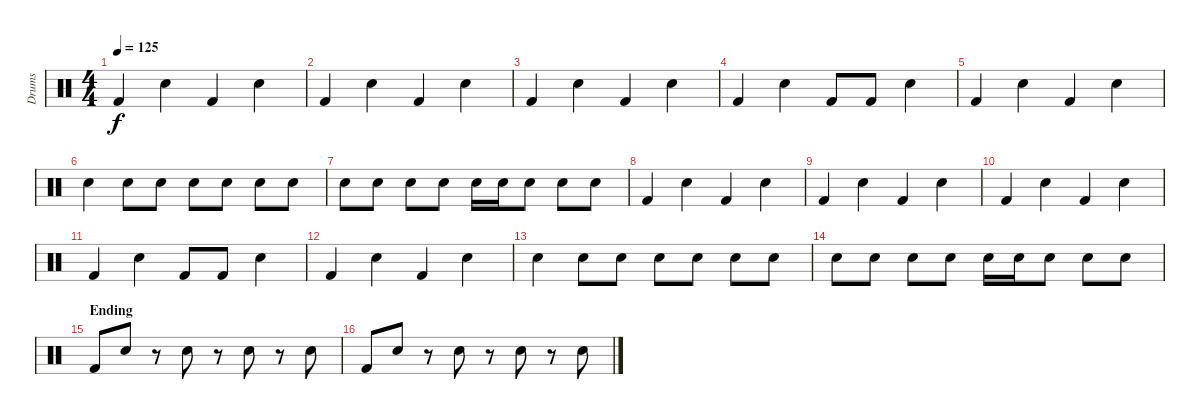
\track ("Drums" "Drums") {instrument percussion}
\staff {score}
\articulation defaults
\ts (4 4)
\tempo 125
\clef neutral
\ks c "Kick (hit) 2".4{dy f} "Snare (hit) 2".4 "Kick (hit) 2".4 "Snare (hit) 2".4
|
"Kick (hit) 2".4 "Snare (hit) 2".4 "Kick (hit) 2".4 "Snare (hit) 2".4 |
"Kick (hit) 2".4 "Snare (hit) 2".4 "Kick (hit) 2".4 "Snare (hit) 2".4 |
"Kick (hit) 2".4 "Snare (hit) 2".4 "Kick (hit) 2".8 "Kick (hit) 2".8 "Snare (hit) 2".4 |
"Kick (hit) 2".4 "Snare (hit) 2".4 "Kick (hit) 2".4 "Snare (hit) 2".4 |
"Snare (hit) 2".4 "Snare (hit) 2".8 "Snare (hit) 2".8 "Snare (hit) 2".8 "Snare (hit) 2".8 "Snare (hit) 2".8 "Snare (hit) 2".8 |
"Snare (hit) 2".8 "Snare (hit) 2".8 "Snare (hit) 2".8 "Snare (hit) 2".8 "Snare (hit) 2".16 "Snare (hit) 2".16 "Snare (hit) 2".8 "Snare (hit) 2".8 "Snare (hit) 2".8 |
"Kick (hit) 2".4 "Snare (hit) 2".4 "Kick (hit) 2".4 "Snare (hit) 2".4 |
"Kick (hit) 2".4 "Snare (hit) 2".4 "Kick (hit) 2".4 "Snare (hit) 2".4 |
"Kick (hit) 2".4 "Snare (hit) 2".4 "Kick (hit) 2".4 "Snare (hit) 2".4 |
"Kick (hit) 2".4 "Snare (hit) 2".4 "Kick (hit) 2".8 "Kick (hit) 2".8 "Snare (hit) 2".4 |
"Kick (hit) 2".4 "Snare (hit) 2".4 "Kick (hit) 2".4 "Snare (hit) 2".4 |
"Snare (hit) 2".4 "Snare (hit) 2".8 "Snare (hit) 2".8 "Snare (hit) 2".8 "Snare (hit) 2".8 "Snare (hit) 2".8 "Snare (hit) 2".8 |
"Snare (hit) 2".8 "Snare (hit) 2".8 "Snare (hit) 2".8 "Snare (hit) 2".8 "Snare (hit) 2".16 "Snare (hit) 2".16 "Snare (hit) 2".8 "Snare (hit) 2".8 "Snare (hit) 2".8 |
\section ("" "Ending")
"Kick (hit) 2".8 "Snare (hit) 2".8 r.8 "Snare (hit) 2".8 r.8 "Snare (hit) 2".8 r.8 "Snare (hit) 2".8 |
"Kick (hit) 2".8 "Snare (hit) 2".8 r.8 "Snare (hit) 2".8 r.8 "Snare (hit) 2".8 r.8 "Snare (hit) 2".8
